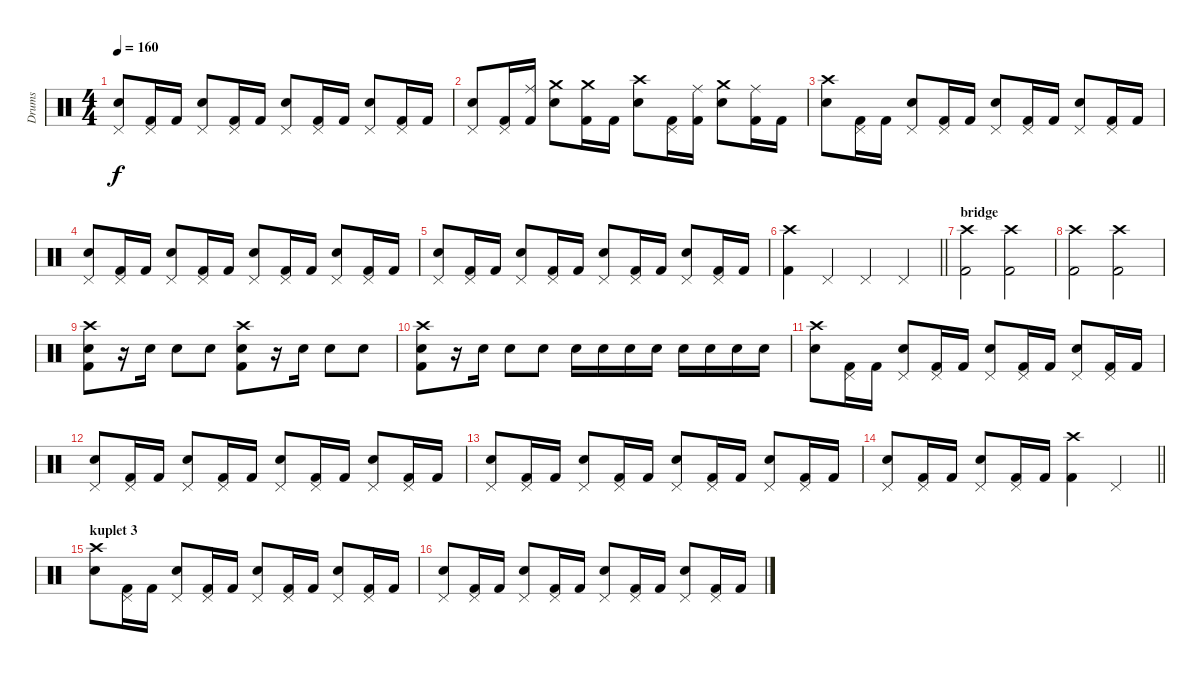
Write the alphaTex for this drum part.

\track ("Drums" "Drums") {instrument percussion}
\staff {score}
\articulation defaults
\ts (4 4)
\tempo 160
\clef neutral
\ks c
("Pedal Hi-Hat (hit)" "Snare (hit) 2").8{dy f} ("Pedal Hi-Hat (hit)" "Kick (hit) 2").16 "Kick (hit) 2".16 ("Pedal Hi-Hat (hit)" "Snare (hit) 2").8 ("Pedal Hi-Hat (hit)" "Kick (hit) 2").16 "Kick (hit) 2".16 ("Pedal Hi-Hat (hit)" "Snare (hit) 2").8 ("Pedal Hi-Hat (hit)" "Kick (hit) 2").16 "Kick (hit) 2".16 ("Pedal Hi-Hat (hit)" "Snare (hit) 2").8 ("Pedal Hi-Hat (hit)" "Kick (hit) 2").16 "Kick (hit) 2".16 |
("Pedal Hi-Hat (hit)" "Snare (hit) 2").8 ("Pedal Hi-Hat (hit)" "Kick (hit) 2").16 ("Ride (middle)" "Kick (hit) 2").16 ("Crash medium (hit)" "Snare (hit) 2").8 ("Crash medium (hit)" "Kick (hit) 2").16 "Kick (hit) 2".16 ("Crash high (hit)" "Snare (hit) 2").8 ("Pedal Hi-Hat (hit)" "Kick (hit) 2").16 ("Ride (middle)" "Kick (hit) 2").16 ("Crash medium (hit)" "Snare (hit) 2").8 ("Ride (middle)" "Kick (hit) 2").16 "Kick (hit) 2".16 |
("Crash high (hit)" "Snare (hit) 2").8 ("Pedal Hi-Hat (hit)" "Kick (hit) 2").16 "Kick (hit) 2".16 ("Pedal Hi-Hat (hit)" "Snare (hit) 2").8 ("Pedal Hi-Hat (hit)" "Kick (hit) 2").16 "Kick (hit) 2".16 ("Pedal Hi-Hat (hit)" "Snare (hit) 2").8 ("Pedal Hi-Hat (hit)" "Kick (hit) 2").16 "Kick (hit) 2".16 ("Pedal Hi-Hat (hit)" "Snare (hit) 2").8 ("Pedal Hi-Hat (hit)" "Kick (hit) 2").16 "Kick (hit) 2".16 |
("Pedal Hi-Hat (hit)" "Snare (hit) 2").8 ("Pedal Hi-Hat (hit)" "Kick (hit) 2").16 "Kick (hit) 2".16 ("Pedal Hi-Hat (hit)" "Snare (hit) 2").8 ("Pedal Hi-Hat (hit)" "Kick (hit) 2").16 "Kick (hit) 2".16 ("Pedal Hi-Hat (hit)" "Snare (hit) 2").8 ("Pedal Hi-Hat (hit)" "Kick (hit) 2").16 "Kick (hit) 2".16 ("Pedal Hi-Hat (hit)" "Snare (hit) 2").8 ("Pedal Hi-Hat (hit)" "Kick (hit) 2").16 "Kick (hit) 2".16 |
("Pedal Hi-Hat (hit)" "Snare (hit) 2").8 ("Pedal Hi-Hat (hit)" "Kick (hit) 2").16 "Kick (hit) 2".16 ("Pedal Hi-Hat (hit)" "Snare (hit) 2").8 ("Pedal Hi-Hat (hit)" "Kick (hit) 2").16 "Kick (hit) 2".16 ("Pedal Hi-Hat (hit)" "Snare (hit) 2").8 ("Pedal Hi-Hat (hit)" "Kick (hit) 2").16 "Kick (hit) 2".16 ("Pedal Hi-Hat (hit)" "Snare (hit) 2").8 ("Pedal Hi-Hat (hit)" "Kick (hit) 2").16 "Kick (hit) 2".16 |
\barLineRight lightlight
("Crash high (hit)" "Kick (hit) 2").4 "Pedal Hi-Hat (hit)".4 "Pedal Hi-Hat (hit)".4 "Pedal Hi-Hat (hit)".4 |
\section ("" "bridge")
("Crash high (hit)" "Kick (hit) 2").2 ("Crash high (hit)" "Kick (hit) 2").2 |
("Crash high (hit)" "Kick (hit) 2").2 ("Crash high (hit)" "Kick (hit) 2").2 |
("Crash high (hit)" "Snare (hit) 2" "Kick (hit) 2").8 r.16 "Snare (hit) 2".16 "Snare (hit) 2".8 "Snare (hit) 2".8 ("Crash high (hit)" "Snare (hit) 2" "Kick (hit) 2").8 r.16 "Snare (hit) 2".16 "Snare (hit) 2".8 "Snare (hit) 2".8 |
("Crash high (hit)" "Snare (hit) 2" "Kick (hit) 2").8 r.16 "Snare (hit) 2".16 "Snare (hit) 2".8 "Snare (hit) 2".8 "Snare (hit) 2".16 "Snare (hit) 2".16 "Snare (hit) 2".16 "Snare (hit) 2".16 "Snare (hit) 2".16 "Snare (hit) 2".16 "Snare (hit) 2".16 "Snare (hit) 2".16 |
("Crash high (hit)" "Snare (hit) 2").8 ("Pedal Hi-Hat (hit)" "Kick (hit) 2").16 "Kick (hit) 2".16 ("Pedal Hi-Hat (hit)" "Snare (hit) 2").8 ("Pedal Hi-Hat (hit)" "Kick (hit) 2").16 "Kick (hit) 2".16 ("Pedal Hi-Hat (hit)" "Snare (hit) 2").8 ("Pedal Hi-Hat (hit)" "Kick (hit) 2").16 "Kick (hit) 2".16 ("Pedal Hi-Hat (hit)" "Snare (hit) 2").8 ("Pedal Hi-Hat (hit)" "Kick (hit) 2").16 "Kick (hit) 2".16 |
("Pedal Hi-Hat (hit)" "Snare (hit) 2").8 ("Pedal Hi-Hat (hit)" "Kick (hit) 2").16 "Kick (hit) 2".16 ("Pedal Hi-Hat (hit)" "Snare (hit) 2").8 ("Pedal Hi-Hat (hit)" "Kick (hit) 2").16 "Kick (hit) 2".16 ("Pedal Hi-Hat (hit)" "Snare (hit) 2").8 ("Pedal Hi-Hat (hit)" "Kick (hit) 2").16 "Kick (hit) 2".16 ("Pedal Hi-Hat (hit)" "Snare (hit) 2").8 ("Pedal Hi-Hat (hit)" "Kick (hit) 2").16 "Kick (hit) 2".16 |
("Pedal Hi-Hat (hit)" "Snare (hit) 2").8 ("Pedal Hi-Hat (hit)" "Kick (hit) 2").16 "Kick (hit) 2".16 ("Pedal Hi-Hat (hit)" "Snare (hit) 2").8 ("Pedal Hi-Hat (hit)" "Kick (hit) 2").16 "Kick (hit) 2".16 ("Pedal Hi-Hat (hit)" "Snare (hit) 2").8 ("Pedal Hi-Hat (hit)" "Kick (hit) 2").16 "Kick (hit) 2".16 ("Pedal Hi-Hat (hit)" "Snare (hit) 2").8 ("Pedal Hi-Hat (hit)" "Kick (hit) 2").16 "Kick (hit) 2".16 |
\barLineRight lightlight
("Pedal Hi-Hat (hit)" "Snare (hit) 2").8 ("Pedal Hi-Hat (hit)" "Kick (hit) 2").16 "Kick (hit) 2".16 ("Pedal Hi-Hat (hit)" "Snare (hit) 2").8 ("Pedal Hi-Hat (hit)" "Kick (hit) 2").16 "Kick (hit) 2".16 ("Crash high (hit)" "Kick (hit) 2").4 "Pedal Hi-Hat (hit)".4 |
\section ("" "kuplet 3")
("Crash high (hit)" "Snare (hit) 2").8 ("Pedal Hi-Hat (hit)" "Kick (hit) 2").16 "Kick (hit) 2".16 ("Pedal Hi-Hat (hit)" "Snare (hit) 2").8 ("Pedal Hi-Hat (hit)" "Kick (hit) 2").16 "Kick (hit) 2".16 ("Pedal Hi-Hat (hit)" "Snare (hit) 2").8 ("Pedal Hi-Hat (hit)" "Kick (hit) 2").16 "Kick (hit) 2".16 ("Pedal Hi-Hat (hit)" "Snare (hit) 2").8 ("Pedal Hi-Hat (hit)" "Kick (hit) 2").16 "Kick (hit) 2".16 |
("Pedal Hi-Hat (hit)" "Snare (hit) 2").8 ("Pedal Hi-Hat (hit)" "Kick (hit) 2").16 "Kick (hit) 2".16 ("Pedal Hi-Hat (hit)" "Snare (hit) 2").8 ("Pedal Hi-Hat (hit)" "Kick (hit) 2").16 "Kick (hit) 2".16 ("Pedal Hi-Hat (hit)" "Snare (hit) 2").8 ("Pedal Hi-Hat (hit)" "Kick (hit) 2").16 "Kick (hit) 2".16 ("Pedal Hi-Hat (hit)" "Snare (hit) 2").8 ("Pedal Hi-Hat (hit)" "Kick (hit) 2").16 "Kick (hit) 2".16
